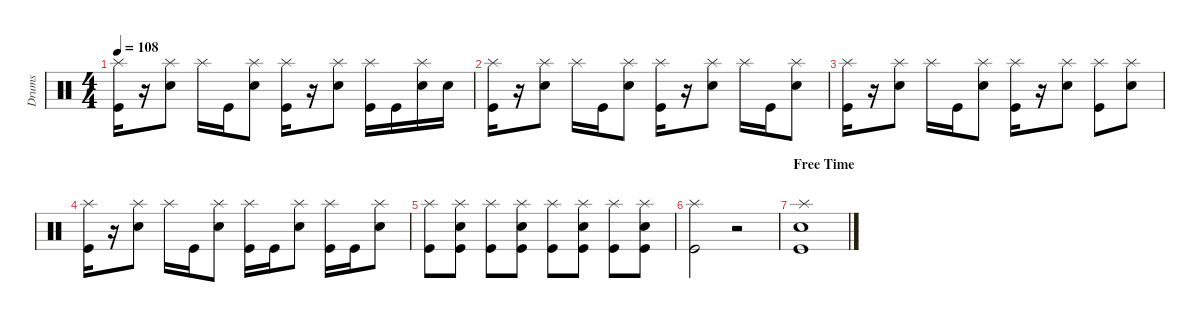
\defaultSystemsLayout 4
\hideDynamics
\bracketExtendMode groupsimilarinstruments
\otherSystemsTrackNameOrientation horizontal
\chordDiagramsInScore
\track ("Drumkit" "Drums") {instrument percussion}
\staff {score}
\articulation defaults
\ts (4 4)
\tempo 108
\clef neutral
\ks c
("Kick (hit)" "Splash (hit)").16{dy mf} r.16 ("Snare (hit) 2" "Splash (hit)").8 "Splash (hit)".16 "Kick (hit)".16 ("Snare (hit) 2" "Splash (hit)").8 ("Kick (hit)" "Splash (hit)").16 r.16 ("Snare (hit) 2" "Splash (hit)").8 ("Splash (hit)" "Kick (hit)").16 "Kick (hit)".16 ("Snare (hit) 2" "Splash (hit)").16 "Snare (hit) 2".16 |
("Kick (hit)" "Splash (hit)").16 r.16 ("Snare (hit) 2" "Splash (hit)").8 "Splash (hit)".16 "Kick (hit)".16 ("Snare (hit) 2" "Splash (hit)").8 ("Kick (hit)" "Splash (hit)").16 r.16 ("Snare (hit) 2" "Splash (hit)").8 "Splash (hit)".16 "Kick (hit)".16 ("Snare (hit) 2" "Splash (hit)").8 |
("Kick (hit)" "Splash (hit)").16 r.16 ("Snare (hit) 2" "Splash (hit)").8 "Splash (hit)".16 "Kick (hit)".16 ("Snare (hit) 2" "Splash (hit)").8 ("Kick (hit)" "Splash (hit)").16 r.16 ("Snare (hit) 2" "Splash (hit)").8 ("Splash (hit)" "Kick (hit)").8 ("Snare (hit) 2" "Splash (hit)").8 |
("Kick (hit)" "Splash (hit)").16 r.16 ("Snare (hit) 2" "Splash (hit)").8 "Splash (hit)".16 "Kick (hit)".16 ("Snare (hit) 2" "Splash (hit)").8 ("Kick (hit)" "Splash (hit)").16 "Kick (hit)".16 ("Snare (hit) 2" "Splash (hit)").8 ("Kick (hit)" "Splash (hit)").16 "Kick (hit)".16 ("Snare (hit) 2" "Splash (hit)").8 |
("Kick (hit)" "Splash (hit)").8 ("Kick (hit)" "Splash (hit)" "Snare (hit) 2").8 ("Kick (hit)" "Splash (hit)").8 ("Kick (hit)" "Splash (hit)" "Snare (hit) 2").8 ("Kick (hit)" "Splash (hit)").8 ("Kick (hit)" "Splash (hit)" "Snare (hit) 2").8 ("Kick (hit)" "Splash (hit)").8 ("Kick (hit)" "Splash (hit)" "Snare (hit) 2").8 |
("Kick (hit)" "Splash (hit)").2 r.2 |
\section ("" "Free Time")
("Kick (hit)" "Splash (hit)" "Snare (hit) 2").1
